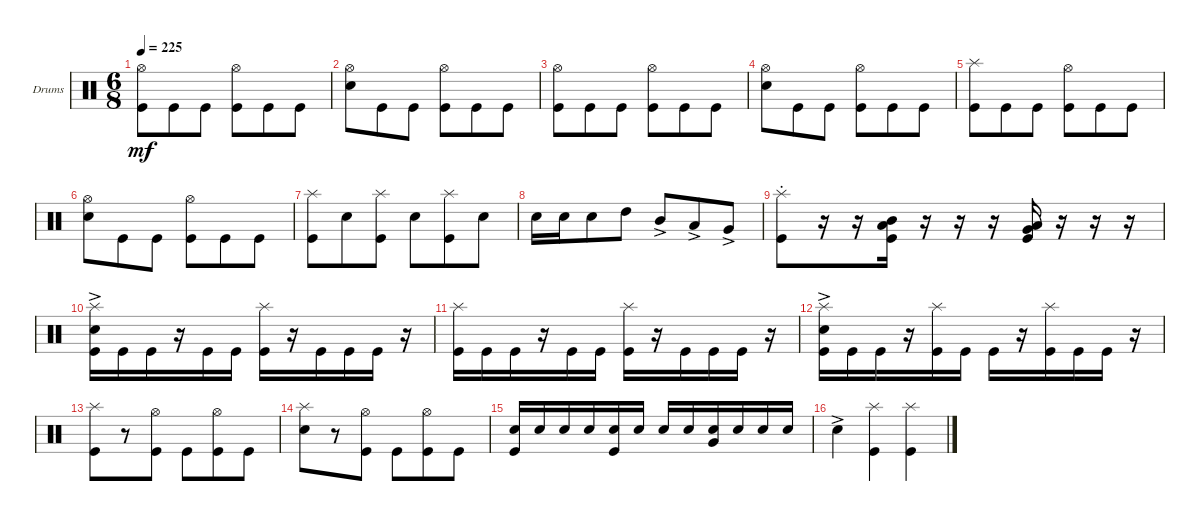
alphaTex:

\bracketExtendMode groupsimilarinstruments
\firstSystemTrackNameOrientation horizontal
\otherSystemsTrackNameOrientation horizontal
\track ("Drumkit" "Drums") {instrument percussion}
\staff {score}
\articulation defaults
\ts (6 8)
\tempo 225
\clef neutral
\ks c
("Kick (hit)" "Hi-Hat (open)").8{dy mf} "Kick (hit)".8 "Kick (hit)".8 ("Kick (hit)" "Hi-Hat (open)").8 "Kick (hit)".8 "Kick (hit)".8 |
("Snare (hit) 2" "Hi-Hat (open)").8 "Kick (hit)".8 "Kick (hit)".8 ("Kick (hit)" "Hi-Hat (open)").8 "Kick (hit)".8 "Kick (hit)".8 |
("Kick (hit)" "Hi-Hat (open)").8 "Kick (hit)".8 "Kick (hit)".8 ("Kick (hit)" "Hi-Hat (open)").8 "Kick (hit)".8 "Kick (hit)".8 |
("Snare (hit) 2" "Hi-Hat (open)").8 "Kick (hit)".8 "Kick (hit)".8 ("Kick (hit)" "Hi-Hat (open)").8 "Kick (hit)".8 "Kick (hit)".8 |
("Kick (hit)" "Splash (hit)").8 "Kick (hit)".8 "Kick (hit)".8 ("Kick (hit)" "Hi-Hat (open)").8 "Kick (hit)".8 "Kick (hit)".8 |
("Snare (hit) 2" "Hi-Hat (open)").8 "Kick (hit)".8 "Kick (hit)".8 ("Kick (hit)" "Hi-Hat (open)").8 "Kick (hit)".8 "Kick (hit)".8 |
("Kick (hit)" "Splash (hit)").8 "Snare (hit) 2".8 ("Kick (hit)" "Splash (hit)").8 "Snare (hit) 2".8 ("Kick (hit)" "Splash (hit)").8 "Snare (hit) 2".8 |
"Snare (hit) 2".16 "Snare (hit) 2".16 "Snare (hit) 2".8 "High Tom (hit)".8 "Mid Tom (hit)"{ac}.8 "Low Tom (hit)"{ac}.8 "Very Low Tom (hit)"{ac}.8 |
("Kick (hit)" "Splash (hit)"{st}).8 r.16 r.16 ("Kick (hit)" "Mid Tom (hit)" "Low Tom (hit)").16 r.16 r.16 r.16 ("Kick (hit)" "Very Low Tom (hit)" "Low Tom (hit)").16 r.16 r.16 r.16 |
("Snare (hit) 2"{ac} "Kick (hit)" "Splash (hit)").16 "Kick (hit)".16 "Kick (hit)".16 r.16 "Kick (hit)".16 "Kick (hit)".16 ("Kick (hit)" "Splash (hit)").16 r.16 "Kick (hit)".16 "Kick (hit)".16 "Kick (hit)".16 r.16 |
("Kick (hit)" "Splash (hit)").16 "Kick (hit)".16 "Kick (hit)".16 r.16 "Kick (hit)".16 "Kick (hit)".16 ("Kick (hit)" "Splash (hit)").16 r.16 "Kick (hit)".16 "Kick (hit)".16 "Kick (hit)".16 r.16 |
("Snare (hit) 2"{ac} "Kick (hit)" "Splash (hit)").16 "Kick (hit)".16 "Kick (hit)".16 r.16 ("Kick (hit)" "Splash (hit)").16 "Kick (hit)".16 "Kick (hit)".16 r.16 ("Kick (hit)" "Splash (hit)").16 "Kick (hit)".16 "Kick (hit)".16 r.16 |
("Kick (hit)" "Splash (hit)").8 r.8 ("Kick (hit)" "Hi-Hat (open)").8 "Kick (hit)".8 ("Kick (hit)" "Hi-Hat (open)").8 "Kick (hit)".8 |
("Snare (hit) 2" "Splash (hit)").8 r.8 ("Kick (hit)" "Hi-Hat (open)").8 "Kick (hit)".8 ("Kick (hit)" "Hi-Hat (open)").8 "Kick (hit)".8 |
("Snare (hit) 2" "Kick (hit)").16 "Snare (hit) 2".16 "Snare (hit) 2".16 "Snare (hit) 2".16 ("Snare (hit) 2" "Kick (hit)").16 "Snare (hit) 2".16 "Snare (hit) 2".16 "Snare (hit) 2".16 ("Snare (hit) 2" "Very Low Tom (hit)").16 "Snare (hit) 2".16 "Snare (hit) 2".16 "Snare (hit) 2".16 |
"Snare (hit) 2"{ac}.4 ("Kick (hit)" "Splash (hit)").4 ("Kick (hit)" "Splash (hit)").4
